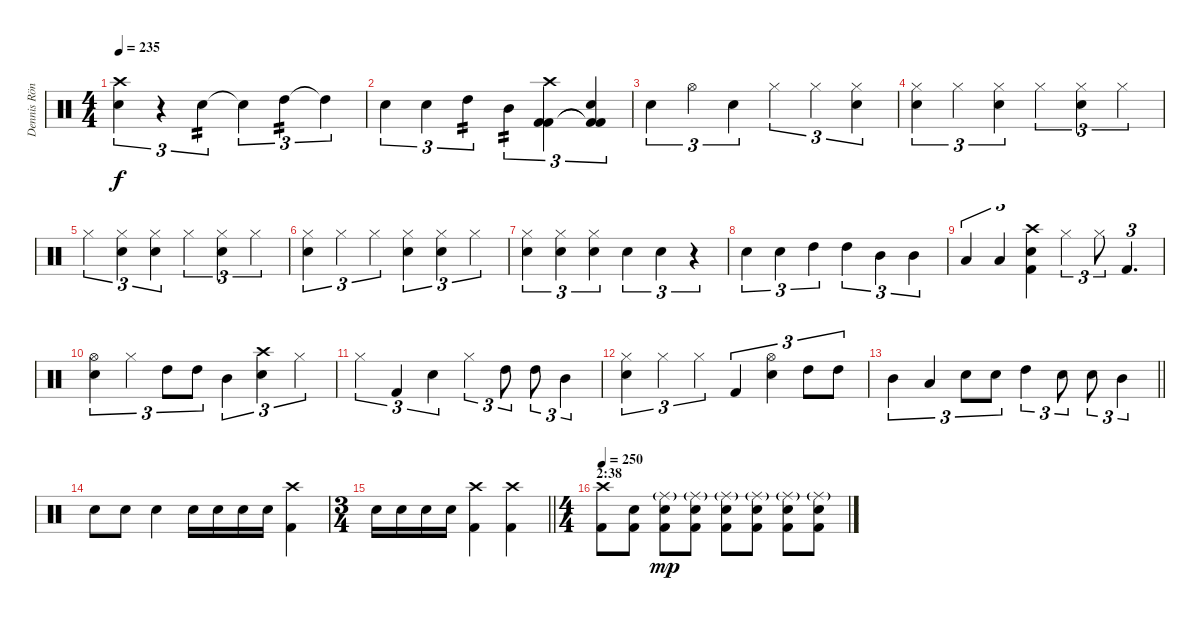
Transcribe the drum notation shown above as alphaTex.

\track ("Dennis Röndum" "Dennis Rön") {instrument percussion}
\staff {score}
\articulation defaults
\ts (4 4)
\tempo 235
\clef neutral
\ks c
("Crash high (hit)" "Snare (hit) 2").4{tu (3 2) dy f} r.4{tu (3 2)} "Snare (hit) 2".4{tu (3 2) tp 2} "Snare (hit) 2"{t}.4{tu (3 2)} "High Tom (hit)".4{tu (3 2) tp 2} "High Tom (hit)"{t}.4{tu (3 2)} |
"Snare (hit) 2".4{tu (3 2)} "Snare (hit) 2".4{tu (3 2)} "High Tom (hit)".4{tu (3 2) tp 2} "Mid Tom (hit)".4{tu (3 2) tp 2} ("Kick (hit) 2" "Crash high (hit)" "Kick (hit) 2").4{tu (3 2)} ("Kick (hit) 2"{t} "Snare (hit) 2" "Kick (hit) 2"{t}).4{tu (3 2)} |
"Snare (hit) 2".4{tu (3 2)} "Hi-Hat (open)".4{tu (3 2)} "Snare (hit) 2".4{tu (3 2)} "Hi-Hat (closed)".4{tu (3 2)} "Hi-Hat (closed)".4{tu (3 2)} ("Hi-Hat (closed)" "Snare (hit) 2").4{tu (3 2)} |
("Hi-Hat (closed)" "Snare (hit) 2").4{tu (3 2)} "Hi-Hat (closed)".4{tu (3 2)} ("Snare (hit) 2" "Hi-Hat (closed)").4{tu (3 2)} "Hi-Hat (closed)".4{tu (3 2)} ("Snare (hit) 2" "Hi-Hat (closed)").4{tu (3 2)} "Hi-Hat (closed)".4{tu (3 2)} |
"Hi-Hat (closed)".4{tu (3 2)} ("Snare (hit) 2" "Hi-Hat (closed)").4{tu (3 2)} ("Snare (hit) 2" "Hi-Hat (closed)").4{tu (3 2)} "Hi-Hat (closed)".4{tu (3 2)} ("Snare (hit) 2" "Hi-Hat (closed)").4{tu (3 2)} "Hi-Hat (closed)".4{tu (3 2)} |
("Hi-Hat (closed)" "Snare (hit) 2").4{tu (3 2)} "Hi-Hat (closed)".4{tu (3 2)} "Hi-Hat (closed)".4{tu (3 2)} ("Snare (hit) 2" "Hi-Hat (closed)").4{tu (3 2)} ("Snare (hit) 2" "Hi-Hat (closed)").4{tu (3 2)} "Hi-Hat (closed)".4{tu (3 2)} |
("Hi-Hat (closed)" "Snare (hit) 2").4{tu (3 2)} ("Hi-Hat (closed)" "Snare (hit) 2").4{tu (3 2)} ("Hi-Hat (closed)" "Snare (hit) 2").4{tu (3 2)} "Snare (hit) 2".4{tu (3 2)} "Snare (hit) 2".4{tu (3 2)} r.4{tu (3 2)} |
"Snare (hit) 2".4{tu (3 2)} "Snare (hit) 2".4{tu (3 2)} "High Tom (hit)".4{tu (3 2)} "High Tom (hit)".4{tu (3 2)} "Mid Tom (hit)".4{tu (3 2)} "Mid Tom (hit)".4{tu (3 2)} |
"Low Floor Tom (hit)".4{tu (3 2)} "Low Floor Tom (hit)".4{tu (3 2)} ("Snare (hit) 2" "Crash high (hit)" "Kick (hit) 2").4{tu (3 2)} "Hi-Hat (closed)".4{tu (3 2)} "Hi-Hat (closed)".8{tu (3 2)} "Kick (hit) 2".4{d tu (3 2)} |
("Hi-Hat (open)" "Snare (hit) 2").4{tu (3 2)} "Hi-Hat (closed)".4{tu (3 2)} "High Tom (hit)".8{tu (3 2)} "High Tom (hit)".8{tu (3 2)} "Mid Tom (hit)".4{tu (3 2)} ("Crash high (hit)" "Snare (hit) 2").4{tu (3 2)} "Hi-Hat (closed)".4{tu (3 2)} |
"Hi-Hat (closed)".4{tu (3 2)} "Kick (hit) 2".4{tu (3 2)} "Snare (hit) 2".4{tu (3 2)} "Hi-Hat (closed)".4{tu (3 2)} "High Tom (hit)".8{tu (3 2)} "High Tom (hit)".8{tu (3 2)} "Mid Tom (hit)".4{tu (3 2)} |
("Hi-Hat (closed)" "Snare (hit) 2").4{tu (3 2)} "Hi-Hat (closed)".4{tu (3 2)} "Hi-Hat (closed)".4{tu (3 2)} "Kick (hit) 2".4{tu (3 2)} ("Hi-Hat (open)" "Snare (hit) 2").4{tu (3 2)} "High Tom (hit)".8{tu (3 2)} "High Tom (hit)".8{tu (3 2)} |
\barLineRight lightlight "Mid Tom (hit)".4{tu (3 2)} "Low Floor Tom (hit)".4{tu (3 2)} "Snare (hit) 2".8{tu (3 2)} "Snare (hit) 2".8{tu (3 2)} "High Tom (hit)".4{tu (3 2)} "Snare (hit) 2".8{tu (3 2)} "Snare (hit) 2".8{tu (3 2)} "Mid Tom (hit)".4{tu (3 2)}
|
"Snare (hit) 2".8 "Snare (hit) 2".8 "Snare (hit) 2".4 "Snare (hit) 2".16 "Snare (hit) 2".16 "Snare (hit) 2".16 "Snare (hit) 2".16 ("Kick (hit) 2" "Crash high (hit)").4 |
\ts (3 4)
\barLineRight lightlight "Snare (hit) 2".16 "Snare (hit) 2".16 "Snare (hit) 2".16 "Snare (hit) 2".16
("Crash high (hit)" "Kick (hit) 2").4 ("Crash high (hit)" "Kick (hit) 2").4 |
\ts (4 4)
\section ("" "2:38")
\tempo 250
("Crash high (hit)" "Kick (hit) 2").8 ("Snare (hit) 2" "Kick (hit) 2").8 ("Snare (hit) 2" "Ride (middle)"{g} "Kick (hit) 2").8{dy mp} ("Snare (hit) 2" "Ride (middle)"{g} "Kick (hit) 2").8 ("Snare (hit) 2" "Ride (middle)"{g} "Kick (hit) 2").8 ("Snare (hit) 2" "Ride (middle)"{g} "Kick (hit) 2").8 ("Snare (hit) 2" "Ride (middle)"{g} "Kick (hit) 2").8 ("Snare (hit) 2" "Ride (middle)"{g} "Kick (hit) 2").8
